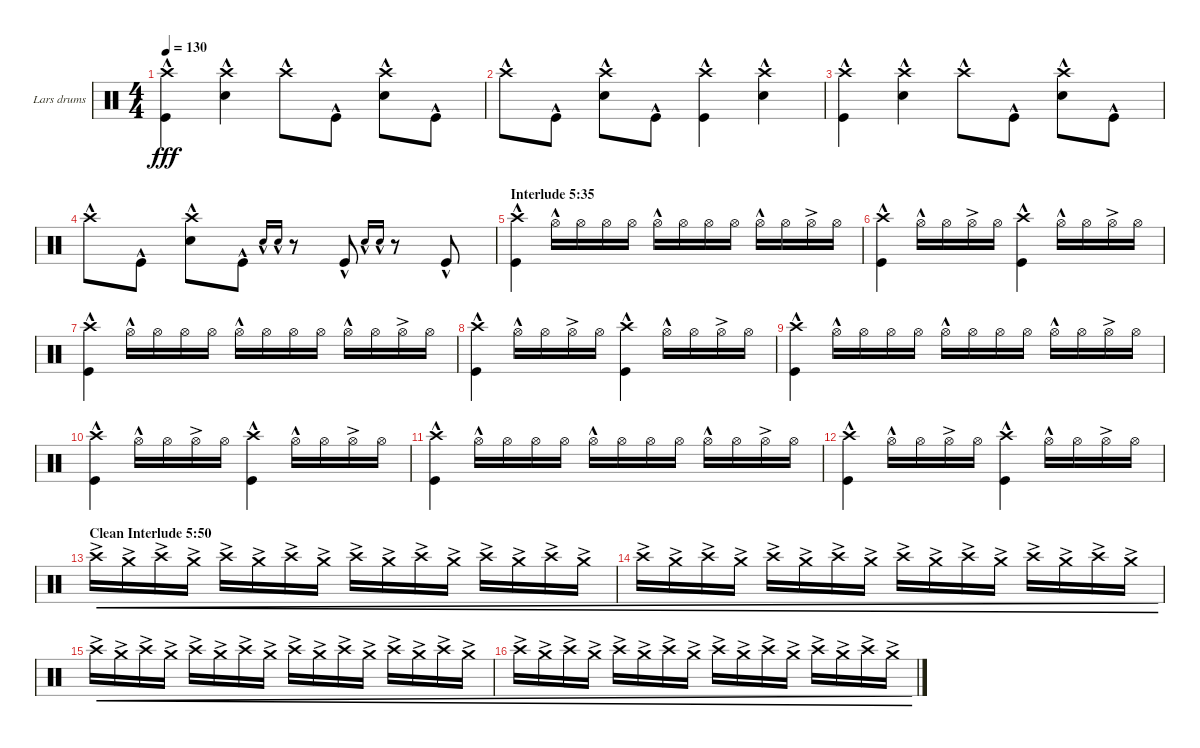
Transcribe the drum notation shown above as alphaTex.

\defaultSystemsLayout 4
\bracketExtendMode groupsimilarinstruments
\firstSystemTrackNameOrientation horizontal
\otherSystemsTrackNameOrientation horizontal
\track ("Lars drums" "Lars drums") {instrument percussion}
\staff {score}
\articulation defaults
\ts (4 4)
\tempo 130
\clef neutral
\ks c
("Crash high (hit)"{hac} "Kick (hit)"{hac}).4{dy fff} ("Crash high (hit)"{hac} "Snare (hit) 2"{hac}).4 "Crash high (hit)"{hac}.8 "Kick (hit)"{hac}.8 ("Crash high (hit)"{hac} "Snare (hit) 2"{hac}).8 "Kick (hit)"{hac}.8 |
"Crash high (hit)"{hac}.8 "Kick (hit)"{hac}.8 ("Crash high (hit)"{hac} "Snare (hit) 2"{hac}).8 "Kick (hit)"{hac}.8 ("Crash high (hit)"{hac} "Kick (hit)"{hac}).4 ("Crash high (hit)"{hac} "Snare (hit) 2"{hac}).4 |
("Crash high (hit)"{hac} "Kick (hit)"{hac}).4 ("Crash high (hit)"{hac} "Snare (hit) 2"{hac}).4 "Crash high (hit)"{hac}.8 "Kick (hit)"{hac}.8 ("Crash high (hit)"{hac} "Snare (hit) 2"{hac}).8 "Kick (hit)"{hac}.8 |
"Crash high (hit)"{hac}.8 "Kick (hit)"{hac}.8 ("Crash high (hit)"{hac} "Snare (hit) 2"{hac}).8 "Kick (hit)"{hac}.8 "Snare (hit) 2"{hac}.16{gr onbeat} "Snare (hit) 2"{hac}.16{gr onbeat} r.8 "Kick (hit)"{hac}.8 "Snare (hit) 2"{hac}.16{gr onbeat} "Snare (hit) 2"{hac}.16{gr onbeat} r.8 "Kick (hit)"{hac}.8 |
\section ("" "Interlude 5:35")
("Crash high (hit)"{hac} "Kick (hit)"{hac}).4 "Hi-Hat (open)"{hac}.16 "Hi-Hat (open)".16 "Hi-Hat (open)".16 "Hi-Hat (open)".16 "Hi-Hat (open)"{hac}.16 "Hi-Hat (open)".16 "Hi-Hat (open)".16 "Hi-Hat (open)".16 "Hi-Hat (open)"{hac}.16 "Hi-Hat (open)".16 "Hi-Hat (open)"{ac}.16 "Hi-Hat (open)".16 |
("Crash high (hit)"{hac} "Kick (hit)"{hac}).4 "Hi-Hat (open)"{hac}.16 "Hi-Hat (open)".16 "Hi-Hat (open)"{ac}.16 "Hi-Hat (open)".16 ("Crash high (hit)"{hac} "Kick (hit)"{hac}).4 "Hi-Hat (open)"{hac}.16 "Hi-Hat (open)".16 "Hi-Hat (open)"{ac}.16 "Hi-Hat (open)".16 |
("Crash high (hit)"{hac} "Kick (hit)"{hac}).4 "Hi-Hat (open)"{hac}.16 "Hi-Hat (open)".16 "Hi-Hat (open)".16 "Hi-Hat (open)".16 "Hi-Hat (open)"{hac}.16 "Hi-Hat (open)".16 "Hi-Hat (open)".16 "Hi-Hat (open)".16 "Hi-Hat (open)"{hac}.16 "Hi-Hat (open)".16 "Hi-Hat (open)"{ac}.16 "Hi-Hat (open)".16 |
("Crash high (hit)"{hac} "Kick (hit)"{hac}).4 "Hi-Hat (open)"{hac}.16 "Hi-Hat (open)".16 "Hi-Hat (open)"{ac}.16 "Hi-Hat (open)".16 ("Crash high (hit)"{hac} "Kick (hit)"{hac}).4 "Hi-Hat (open)"{hac}.16 "Hi-Hat (open)".16 "Hi-Hat (open)"{ac}.16 "Hi-Hat (open)".16 |
("Crash high (hit)"{hac} "Kick (hit)"{hac}).4 "Hi-Hat (open)"{hac}.16 "Hi-Hat (open)".16 "Hi-Hat (open)".16 "Hi-Hat (open)".16 "Hi-Hat (open)"{hac}.16 "Hi-Hat (open)".16 "Hi-Hat (open)".16 "Hi-Hat (open)".16 "Hi-Hat (open)"{hac}.16 "Hi-Hat (open)".16 "Hi-Hat (open)"{ac}.16 "Hi-Hat (open)".16 |
("Crash high (hit)"{hac} "Kick (hit)"{hac}).4 "Hi-Hat (open)"{hac}.16 "Hi-Hat (open)".16 "Hi-Hat (open)"{ac}.16 "Hi-Hat (open)".16 ("Crash high (hit)"{hac} "Kick (hit)"{hac}).4 "Hi-Hat (open)"{hac}.16 "Hi-Hat (open)".16 "Hi-Hat (open)"{ac}.16 "Hi-Hat (open)".16 |
("Crash high (hit)"{hac} "Kick (hit)"{hac}).4 "Hi-Hat (open)"{hac}.16 "Hi-Hat (open)".16 "Hi-Hat (open)".16 "Hi-Hat (open)".16 "Hi-Hat (open)"{hac}.16 "Hi-Hat (open)".16 "Hi-Hat (open)".16 "Hi-Hat (open)".16 "Hi-Hat (open)"{hac}.16 "Hi-Hat (open)".16 "Hi-Hat (open)"{ac}.16 "Hi-Hat (open)".16 |
("Crash high (hit)"{hac} "Kick (hit)"{hac}).4 "Hi-Hat (open)"{hac}.16 "Hi-Hat (open)".16 "Hi-Hat (open)"{ac}.16 "Hi-Hat (open)".16 ("Crash high (hit)"{hac} "Kick (hit)"{hac}).4 "Hi-Hat (open)"{hac}.16 "Hi-Hat (open)".16 "Hi-Hat (open)"{ac}.16 "Hi-Hat (open)".16 |
\section ("" "Clean Interlude 5:50")
"Crash high (hit)"{ac}.16{cre} "Crash medium (hit)"{ac}.16{cre} "Crash high (hit)"{ac}.16{cre} "Crash medium (hit)"{ac}.16{cre} "Crash high (hit)"{ac}.16{cre} "Crash medium (hit)"{ac}.16{cre} "Crash high (hit)"{ac}.16{cre} "Crash medium (hit)"{ac}.16{cre} "Crash high (hit)"{ac}.16{cre} "Crash medium (hit)"{ac}.16{cre} "Crash high (hit)"{ac}.16{cre} "Crash medium (hit)"{ac}.16{cre} "Crash high (hit)"{ac}.16{cre} "Crash medium (hit)"{ac}.16{cre} "Crash high (hit)"{ac}.16{cre} "Crash medium (hit)"{ac}.16{cre} |
"Crash high (hit)"{ac}.16{cre} "Crash medium (hit)"{ac}.16{cre} "Crash high (hit)"{ac}.16{cre} "Crash medium (hit)"{ac}.16{cre} "Crash high (hit)"{ac}.16{cre} "Crash medium (hit)"{ac}.16{cre} "Crash high (hit)"{ac}.16{cre} "Crash medium (hit)"{ac}.16{cre} "Crash high (hit)"{ac}.16{cre} "Crash medium (hit)"{ac}.16{cre} "Crash high (hit)"{ac}.16{cre} "Crash medium (hit)"{ac}.16{cre} "Crash high (hit)"{ac}.16{cre} "Crash medium (hit)"{ac}.16{cre} "Crash high (hit)"{ac}.16{cre} "Crash medium (hit)"{ac}.16{cre} |
"Crash high (hit)"{ac}.16{cre} "Crash medium (hit)"{ac}.16{cre} "Crash high (hit)"{ac}.16{cre} "Crash medium (hit)"{ac}.16{cre} "Crash high (hit)"{ac}.16{cre} "Crash medium (hit)"{ac}.16{cre} "Crash high (hit)"{ac}.16{cre} "Crash medium (hit)"{ac}.16{cre} "Crash high (hit)"{ac}.16{cre} "Crash medium (hit)"{ac}.16{cre} "Crash high (hit)"{ac}.16{cre} "Crash medium (hit)"{ac}.16{cre} "Crash high (hit)"{ac}.16{cre} "Crash medium (hit)"{ac}.16{cre} "Crash high (hit)"{ac}.16{cre} "Crash medium (hit)"{ac}.16{cre} |
"Crash high (hit)"{ac}.16{cre} "Crash medium (hit)"{ac}.16{cre} "Crash high (hit)"{ac}.16{cre} "Crash medium (hit)"{ac}.16{cre} "Crash high (hit)"{ac}.16{cre} "Crash medium (hit)"{ac}.16{cre} "Crash high (hit)"{ac}.16{cre} "Crash medium (hit)"{ac}.16{cre} "Crash high (hit)"{ac}.16{cre} "Crash medium (hit)"{ac}.16{cre} "Crash high (hit)"{ac}.16{cre} "Crash medium (hit)"{ac}.16{cre} "Crash high (hit)"{ac}.16{cre} "Crash medium (hit)"{ac}.16{cre} "Crash high (hit)"{ac}.16{cre} "Crash medium (hit)"{ac}.16{cre}
